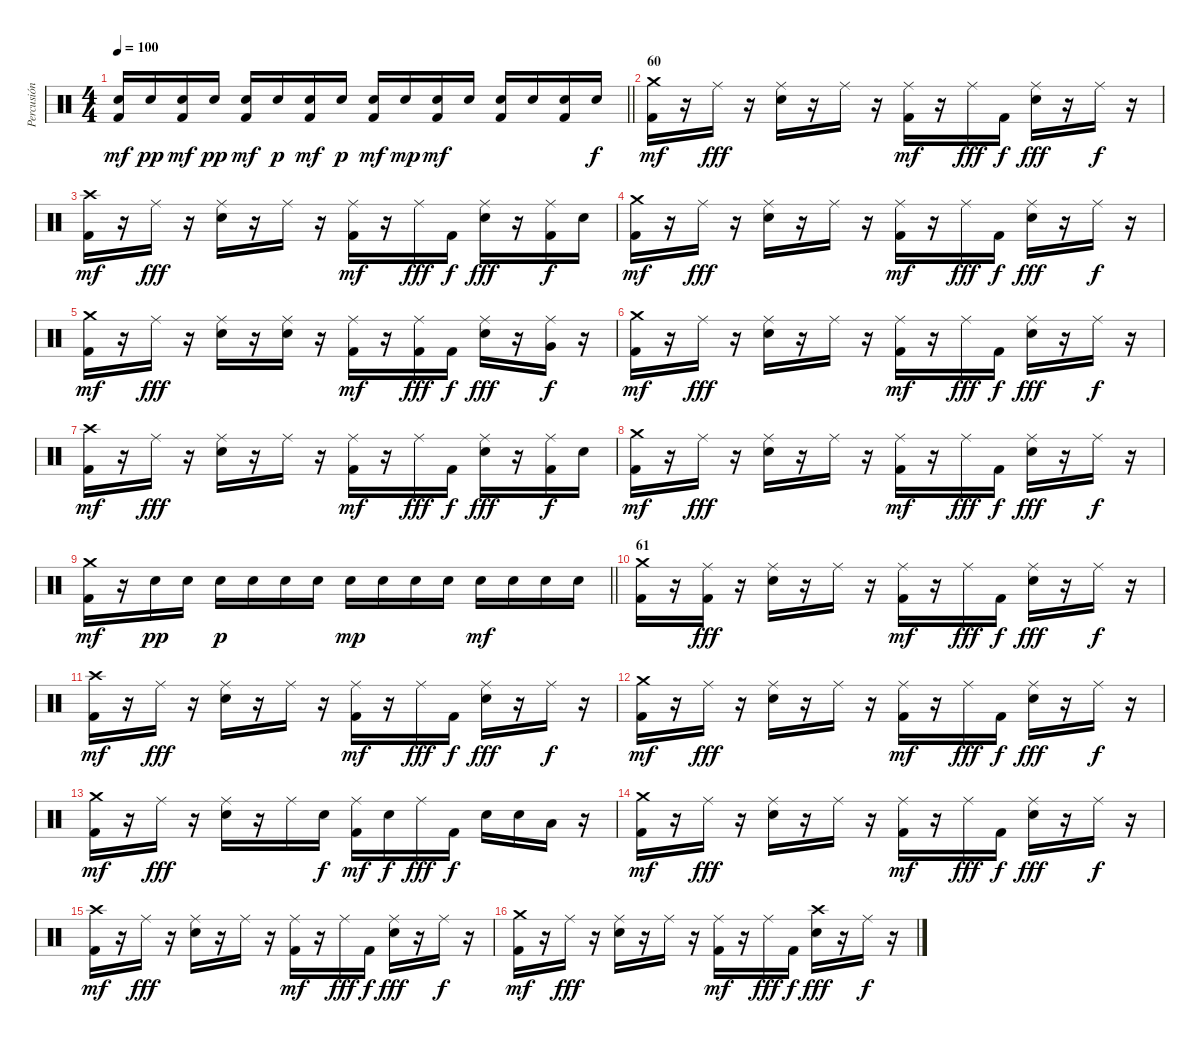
\track ("Percusión" "Percusión") {instrument percussion}
\staff {score}
\articulation defaults
\ts (4 4)
\tempo 100
\clef neutral
\barLineRight lightlight
\ks c
("Electric Snare (hit)" "Kick (hit) 2").16{dy mf} "Electric Snare (hit)".16{dy pp} ("Electric Snare (hit)" "Kick (hit) 2").16{dy mf} "Electric Snare (hit)".16{dy pp} ("Electric Snare (hit)" "Kick (hit) 2").16{dy mf} "Electric Snare (hit)".16{dy p} ("Electric Snare (hit)" "Kick (hit) 2").16{dy mf} "Electric Snare (hit)".16{dy p} ("Electric Snare (hit)" "Kick (hit) 2").16{dy mf} "Electric Snare (hit)".16{dy mp} ("Electric Snare (hit)" "Kick (hit) 2").16{dy mf} "Electric Snare (hit)".16 ("Electric Snare (hit)" "Kick (hit) 2").16 "Electric Snare (hit)".16 ("Electric Snare (hit)" "Kick (hit) 2").16 "Electric Snare (hit)".16{dy f} |
\section ("" "60")
("Crash medium (hit)" "Kick (hit) 2").16{dy mf} r.16 "Ride (middle)".16{dy fff} r.16 ("Ride (middle)" "Electric Snare (hit)").16 r.16 "Ride (middle)".16 r.16 ("Ride (middle)" "Kick (hit) 2").16{dy mf} r.16 "Ride (middle)".16{dy fff} "Kick (hit) 2".16{dy f} ("Ride (middle)" "Electric Snare (hit)").16{dy fff} r.16 "Ride (middle)".16{dy f} r.16 |
("Crash high (hit)" "Kick (hit) 2").16{dy mf} r.16 "Ride (middle)".16{dy fff} r.16 ("Ride (middle)" "Electric Snare (hit)").16 r.16 "Ride (middle)".16 r.16 ("Ride (middle)" "Kick (hit) 2").16{dy mf} r.16 "Ride (middle)".16{dy fff} "Kick (hit) 2".16{dy f} ("Ride (middle)" "Electric Snare (hit)").16{dy fff} r.16 ("Ride (middle)" "Kick (hit) 2").16{dy f} "Electric Snare (hit)".16 |
("Crash medium (hit)" "Kick (hit) 2").16{dy mf} r.16 "Ride (middle)".16{dy fff} r.16 ("Ride (middle)" "Electric Snare (hit)").16 r.16 "Ride (middle)".16 r.16 ("Ride (middle)" "Kick (hit) 2").16{dy mf} r.16 "Ride (middle)".16{dy fff} "Kick (hit) 2".16{dy f} ("Ride (middle)" "Electric Snare (hit)").16{dy fff} r.16 "Ride (middle)".16{dy f} r.16 |
("Crash medium (hit)" "Kick (hit) 2").16{dy mf} r.16 "Ride (middle)".16{dy fff} r.16 ("Ride (middle)" "Electric Snare (hit)").16 r.16 ("Ride (middle)" "Electric Snare (hit)").16 r.16 ("Ride (middle)" "Kick (hit) 2").16{dy mf} r.16 ("Ride (middle)" "Kick (hit) 2").16{dy fff} "Kick (hit) 2".16{dy f} ("Ride (middle)" "Electric Snare (hit)").16{dy fff} r.16 ("Ride (middle)" "Very Low Tom (hit)").16{dy f} r.16 |
("Crash medium (hit)" "Kick (hit) 2").16{dy mf} r.16 "Ride (middle)".16{dy fff} r.16 ("Ride (middle)" "Electric Snare (hit)").16 r.16 "Ride (middle)".16 r.16 ("Ride (middle)" "Kick (hit) 2").16{dy mf} r.16 "Ride (middle)".16{dy fff} "Kick (hit) 2".16{dy f} ("Ride (middle)" "Electric Snare (hit)").16{dy fff} r.16 "Ride (middle)".16{dy f} r.16 |
("Crash high (hit)" "Kick (hit) 2").16{dy mf} r.16 "Ride (middle)".16{dy fff} r.16 ("Ride (middle)" "Electric Snare (hit)").16 r.16 "Ride (middle)".16 r.16 ("Ride (middle)" "Kick (hit) 2").16{dy mf} r.16 "Ride (middle)".16{dy fff} "Kick (hit) 2".16{dy f} ("Ride (middle)" "Electric Snare (hit)").16{dy fff} r.16 ("Ride (middle)" "Kick (hit) 2").16{dy f} "Electric Snare (hit)".16 |
("Crash medium (hit)" "Kick (hit) 2").16{dy mf} r.16 "Ride (middle)".16{dy fff} r.16 ("Ride (middle)" "Electric Snare (hit)").16 r.16 "Ride (middle)".16 r.16 ("Ride (middle)" "Kick (hit) 2").16{dy mf} r.16 "Ride (middle)".16{dy fff} "Kick (hit) 2".16{dy f} ("Ride (middle)" "Electric Snare (hit)").16{dy fff} r.16 "Ride (middle)".16{dy f} r.16 |
\barLineRight lightlight
("Crash medium (hit)" "Kick (hit) 2").16{dy mf} r.16 "Electric Snare (hit)".16{dy pp} "Electric Snare (hit)".16 "Electric Snare (hit)".16{dy p} "Electric Snare (hit)".16 "Electric Snare (hit)".16 "Electric Snare (hit)".16 "Electric Snare (hit)".16{dy mp} "Electric Snare (hit)".16 "Electric Snare (hit)".16 "Electric Snare (hit)".16 "Electric Snare (hit)".16{dy mf} "Electric Snare (hit)".16 "Electric Snare (hit)".16 "Electric Snare (hit)".16 |
\section ("" "61")
("Crash medium (hit)" "Kick (hit) 2").16 r.16 ("Ride (middle)" "Kick (hit) 2").16{dy fff} r.16 ("Ride (middle)" "Electric Snare (hit)").16 r.16 "Ride (middle)".16 r.16 ("Ride (middle)" "Kick (hit) 2").16{dy mf} r.16 "Ride (middle)".16{dy fff} "Kick (hit) 2".16{dy f} ("Ride (middle)" "Electric Snare (hit)").16{dy fff} r.16 "Ride (middle)".16{dy f} r.16 |
("Crash high (hit)" "Kick (hit) 2").16{dy mf} r.16 "Ride (middle)".16{dy fff} r.16 ("Ride (middle)" "Electric Snare (hit)").16 r.16 "Ride (middle)".16 r.16 ("Ride (middle)" "Kick (hit) 2").16{dy mf} r.16 "Ride (middle)".16{dy fff} "Kick (hit) 2".16{dy f} ("Ride (middle)" "Electric Snare (hit)").16{dy fff} r.16 "Ride (middle)".16{dy f} r.16 |
("Crash medium (hit)" "Kick (hit) 2").16{dy mf} r.16 "Ride (middle)".16{dy fff} r.16 ("Ride (middle)" "Electric Snare (hit)").16 r.16 "Ride (middle)".16 r.16 ("Ride (middle)" "Kick (hit) 2").16{dy mf} r.16 "Ride (middle)".16{dy fff} "Kick (hit) 2".16{dy f} ("Ride (middle)" "Electric Snare (hit)").16{dy fff} r.16 "Ride (middle)".16{dy f} r.16 |
("Crash medium (hit)" "Kick (hit) 2").16{dy mf} r.16 "Ride (middle)".16{dy fff} r.16 ("Ride (middle)" "Electric Snare (hit)").16 r.16 "Ride (middle)".16 "Electric Snare (hit)".16{dy f} ("Ride (middle)" "Kick (hit) 2").16{dy mf} "Electric Snare (hit)".16{dy f} "Ride (middle)".16{dy fff} "Kick (hit) 2".16{dy f} "Electric Snare (hit)".16 "Electric Snare (hit)".16 "Low Tom (hit)".16 r.16 |
("Crash medium (hit)" "Kick (hit) 2").16{dy mf} r.16 "Ride (middle)".16{dy fff} r.16 ("Ride (middle)" "Electric Snare (hit)").16 r.16 "Ride (middle)".16 r.16 ("Ride (middle)" "Kick (hit) 2").16{dy mf} r.16 "Ride (middle)".16{dy fff} "Kick (hit) 2".16{dy f} ("Ride (middle)" "Electric Snare (hit)").16{dy fff} r.16 "Ride (middle)".16{dy f} r.16 |
("Crash high (hit)" "Kick (hit) 2").16{dy mf} r.16 "Ride (middle)".16{dy fff} r.16 ("Ride (middle)" "Electric Snare (hit)").16 r.16 "Ride (middle)".16 r.16 ("Ride (middle)" "Kick (hit) 2").16{dy mf} r.16 "Ride (middle)".16{dy fff} "Kick (hit) 2".16{dy f} ("Ride (middle)" "Electric Snare (hit)").16{dy fff} r.16 "Ride (middle)".16{dy f} r.16 |
("Crash medium (hit)" "Kick (hit) 2").16{dy mf} r.16 "Ride (middle)".16{dy fff} r.16 ("Ride (middle)" "Electric Snare (hit)").16 r.16 "Ride (middle)".16 r.16 ("Ride (middle)" "Kick (hit) 2").16{dy mf} r.16 "Ride (middle)".16{dy fff} "Kick (hit) 2".16{dy f} ("Crash high (hit)" "Electric Snare (hit)").16{dy fff} r.16 "Ride (middle)".16{dy f} r.16
